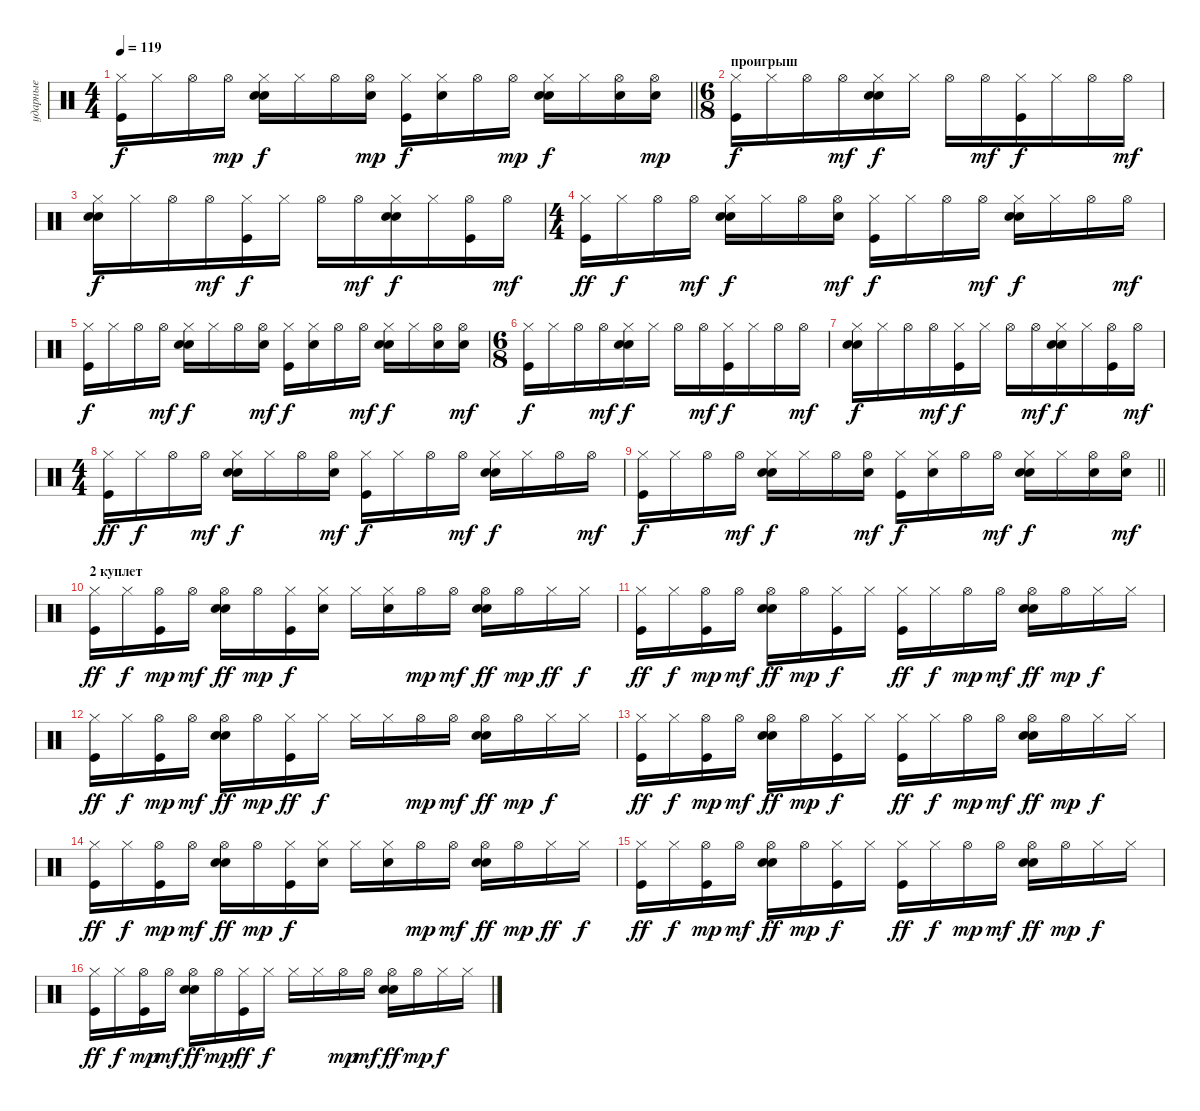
\track ("ударные" "ударные") {instrument percussion}
\staff {score}
\articulation defaults
\ts (4 4)
\tempo 119
\clef neutral
\barLineRight lightlight
\ks c
("Hi-Hat (closed)" "Kick (hit)").16{dy f} "Hi-Hat (closed)".16 "Hi-Hat (open)".16 "Hi-Hat (open)".16{dy mp} ("Hi-Hat (closed)" "Electric Snare (hit)" "Hand Clap (hit)").16{dy f} "Hi-Hat (closed)".16 "Hi-Hat (open)".16 ("Electric Snare (hit)" "Hi-Hat (open)").16{dy mp} ("Kick (hit)" "Hi-Hat (closed)").16{dy f} ("Electric Snare (hit)" "Hi-Hat (closed)").16 "Hi-Hat (open)".16 "Hi-Hat (open)".16{dy mp} ("Hi-Hat (closed)" "Electric Snare (hit)" "Hand Clap (hit)").16{dy f} "Hi-Hat (closed)".16 ("Electric Snare (hit)" "Hi-Hat (open)").16 ("Electric Snare (hit)" "Hi-Hat (open)").16{dy mp} |
\ts (6 8)
\section ("" "проигрыш")
("Hi-Hat (closed)" "Kick (hit)").16{dy f} "Hi-Hat (closed)".16 "Hi-Hat (open)".16 "Hi-Hat (open)".16{dy mf} ("Electric Snare (hit)" "Hi-Hat (closed)" "Hand Clap (hit)").16{dy f} "Hi-Hat (closed)".16 "Hi-Hat (open)".16 "Hi-Hat (open)".16{dy mf} ("Kick (hit)" "Hi-Hat (closed)").16{dy f} "Hi-Hat (closed)".16 "Hi-Hat (open)".16 "Hi-Hat (open)".16{dy mf} |
("Electric Snare (hit)" "Hi-Hat (closed)" "Hand Clap (hit)").16{dy f} "Hi-Hat (closed)".16 "Hi-Hat (open)".16 "Hi-Hat (open)".16{dy mf} ("Kick (hit)" "Hi-Hat (closed)").16{dy f} "Hi-Hat (closed)".16 "Hi-Hat (open)".16 "Hi-Hat (open)".16{dy mf} ("Electric Snare (hit)" "Hi-Hat (closed)" "Hand Clap (hit)").16{dy f} "Hi-Hat (closed)".16 ("Kick (hit)" "Hi-Hat (open)").16 "Hi-Hat (open)".16{dy mf} |
\ts (4 4)
("Kick (hit)" "Hi-Hat (closed)").16{dy ff} "Hi-Hat (closed)".16{dy f} "Hi-Hat (open)".16 "Hi-Hat (open)".16{dy mf} ("Electric Snare (hit)" "Hi-Hat (closed)" "Hand Clap (hit)").16{dy f} "Hi-Hat (closed)".16 "Hi-Hat (open)".16 ("Hi-Hat (open)" "Electric Snare (hit)").16{dy mf} ("Hi-Hat (closed)" "Kick (hit)").16{dy f} "Hi-Hat (closed)".16 "Hi-Hat (open)".16 "Hi-Hat (open)".16{dy mf} ("Electric Snare (hit)" "Hi-Hat (closed)" "Hand Clap (hit)").16{dy f} "Hi-Hat (closed)".16 "Hi-Hat (open)".16 "Hi-Hat (open)".16{dy mf} |
("Kick (hit)" "Hi-Hat (closed)").16{dy f} "Hi-Hat (closed)".16 "Hi-Hat (open)".16 "Hi-Hat (open)".16{dy mf} ("Electric Snare (hit)" "Hi-Hat (closed)" "Hand Clap (hit)").16{dy f} "Hi-Hat (closed)".16 "Hi-Hat (open)".16 ("Hi-Hat (open)" "Electric Snare (hit)").16{dy mf} ("Hi-Hat (closed)" "Kick (hit)").16{dy f} ("Electric Snare (hit)" "Hi-Hat (closed)").16 "Hi-Hat (open)".16 "Hi-Hat (open)".16{dy mf} ("Electric Snare (hit)" "Hi-Hat (closed)" "Hand Clap (hit)").16{dy f} "Hi-Hat (closed)".16 ("Electric Snare (hit)" "Hi-Hat (open)").16 ("Electric Snare (hit)" "Hi-Hat (open)").16{dy mf} |
\ts (6 8)
("Hi-Hat (closed)" "Kick (hit)").16{dy f} "Hi-Hat (closed)".16 "Hi-Hat (open)".16 "Hi-Hat (open)".16{dy mf} ("Electric Snare (hit)" "Hi-Hat (closed)" "Hand Clap (hit)").16{dy f} "Hi-Hat (closed)".16 "Hi-Hat (open)".16 "Hi-Hat (open)".16{dy mf} ("Kick (hit)" "Hi-Hat (closed)").16{dy f} "Hi-Hat (closed)".16 "Hi-Hat (open)".16 "Hi-Hat (open)".16{dy mf} |
("Electric Snare (hit)" "Hi-Hat (closed)" "Hand Clap (hit)").16{dy f} "Hi-Hat (closed)".16 "Hi-Hat (open)".16 "Hi-Hat (open)".16{dy mf} ("Kick (hit)" "Hi-Hat (closed)").16{dy f} "Hi-Hat (closed)".16 "Hi-Hat (open)".16 "Hi-Hat (open)".16{dy mf} ("Electric Snare (hit)" "Hi-Hat (closed)" "Hand Clap (hit)").16{dy f} "Hi-Hat (closed)".16 ("Kick (hit)" "Hi-Hat (open)").16 "Hi-Hat (open)".16{dy mf} |
\ts (4 4)
("Kick (hit)" "Hi-Hat (closed)").16{dy ff} "Hi-Hat (closed)".16{dy f} "Hi-Hat (open)".16 "Hi-Hat (open)".16{dy mf} ("Electric Snare (hit)" "Hi-Hat (closed)" "Hand Clap (hit)").16{dy f} "Hi-Hat (closed)".16 "Hi-Hat (open)".16 ("Hi-Hat (open)" "Electric Snare (hit)").16{dy mf} ("Hi-Hat (closed)" "Kick (hit)").16{dy f} "Hi-Hat (closed)".16 "Hi-Hat (open)".16 "Hi-Hat (open)".16{dy mf} ("Electric Snare (hit)" "Hi-Hat (closed)" "Hand Clap (hit)").16{dy f} "Hi-Hat (closed)".16 "Hi-Hat (open)".16 "Hi-Hat (open)".16{dy mf} |
\barLineRight lightlight
("Kick (hit)" "Hi-Hat (closed)").16{dy f} "Hi-Hat (closed)".16 "Hi-Hat (open)".16 "Hi-Hat (open)".16{dy mf} ("Electric Snare (hit)" "Hi-Hat (closed)" "Hand Clap (hit)").16{dy f} "Hi-Hat (closed)".16 "Hi-Hat (open)".16 ("Hi-Hat (open)" "Electric Snare (hit)").16{dy mf} ("Hi-Hat (closed)" "Kick (hit)").16{dy f} ("Electric Snare (hit)" "Hi-Hat (closed)").16 "Hi-Hat (open)".16 "Hi-Hat (open)".16{dy mf} ("Electric Snare (hit)" "Hi-Hat (closed)" "Hand Clap (hit)").16{dy f} "Hi-Hat (closed)".16 ("Electric Snare (hit)" "Hi-Hat (open)").16 ("Electric Snare (hit)" "Hi-Hat (open)").16{dy mf} |
\section ("" "2 куплет")
("Kick (hit)" "Hi-Hat (closed)").16{dy ff} "Hi-Hat (closed)".16{dy f} ("Kick (hit)" "Hi-Hat (open)").16{dy mp} "Hi-Hat (open)".16{dy mf} ("Electric Snare (hit)" "Hi-Hat (open)" "Hand Clap (hit)").16{dy ff} "Hi-Hat (open)".16{dy mp} ("Kick (hit)" "Hi-Hat (closed)").16{dy f} ("Electric Snare (hit)" "Hi-Hat (closed)").16 "Hi-Hat (closed)".16 ("Electric Snare (hit)" "Hi-Hat (closed)").16 "Hi-Hat (open)".16{dy mp} "Hi-Hat (open)".16{dy mf} ("Hi-Hat (open)" "Electric Snare (hit)" "Hand Clap (hit)").16{dy ff} "Hi-Hat (open)".16{dy mp} "Hi-Hat (closed)".16{dy ff} "Hi-Hat (closed)".16{dy f} |
("Kick (hit)" "Hi-Hat (closed)").16{dy ff} "Hi-Hat (closed)".16{dy f} ("Kick (hit)" "Hi-Hat (open)").16{dy mp} "Hi-Hat (open)".16{dy mf} ("Electric Snare (hit)" "Hi-Hat (open)" "Hand Clap (hit)").16{dy ff} "Hi-Hat (open)".16{dy mp} ("Kick (hit)" "Hi-Hat (closed)").16{dy f} "Hi-Hat (closed)".16 ("Kick (hit)" "Hi-Hat (closed)").16{dy ff} "Hi-Hat (closed)".16{dy f} "Hi-Hat (open)".16{dy mp} "Hi-Hat (open)".16{dy mf} ("Electric Snare (hit)" "Hi-Hat (open)" "Hand Clap (hit)").16{dy ff} "Hi-Hat (open)".16{dy mp} "Hi-Hat (closed)".16{dy f} "Hi-Hat (closed)".16 |
("Kick (hit)" "Hi-Hat (closed)").16{dy ff} "Hi-Hat (closed)".16{dy f} ("Kick (hit)" "Hi-Hat (open)").16{dy mp} "Hi-Hat (open)".16{dy mf} ("Electric Snare (hit)" "Hi-Hat (open)" "Hand Clap (hit)").16{dy ff} "Hi-Hat (open)".16{dy mp} ("Kick (hit)" "Hi-Hat (closed)").16{dy ff} "Hi-Hat (closed)".16{dy f} "Hi-Hat (closed)".16 "Hi-Hat (closed)".16 "Hi-Hat (open)".16{dy mp} "Hi-Hat (open)".16{dy mf} ("Electric Snare (hit)" "Hi-Hat (open)" "Hand Clap (hit)").16{dy ff} "Hi-Hat (open)".16{dy mp} "Hi-Hat (closed)".16{dy f} "Hi-Hat (closed)".16 |
("Kick (hit)" "Hi-Hat (closed)").16{dy ff} "Hi-Hat (closed)".16{dy f} ("Kick (hit)" "Hi-Hat (open)").16{dy mp} "Hi-Hat (open)".16{dy mf} ("Electric Snare (hit)" "Hi-Hat (open)" "Hand Clap (hit)").16{dy ff} "Hi-Hat (open)".16{dy mp} ("Kick (hit)" "Hi-Hat (closed)").16{dy f} "Hi-Hat (closed)".16 ("Kick (hit)" "Hi-Hat (closed)").16{dy ff} "Hi-Hat (closed)".16{dy f} "Hi-Hat (open)".16{dy mp} "Hi-Hat (open)".16{dy mf} ("Electric Snare (hit)" "Hi-Hat (open)" "Hand Clap (hit)").16{dy ff} "Hi-Hat (open)".16{dy mp} "Hi-Hat (closed)".16{dy f} "Hi-Hat (closed)".16 |
("Kick (hit)" "Hi-Hat (closed)").16{dy ff} "Hi-Hat (closed)".16{dy f} ("Kick (hit)" "Hi-Hat (open)").16{dy mp} "Hi-Hat (open)".16{dy mf} ("Electric Snare (hit)" "Hi-Hat (open)" "Hand Clap (hit)").16{dy ff} "Hi-Hat (open)".16{dy mp} ("Kick (hit)" "Hi-Hat (closed)").16{dy f} ("Electric Snare (hit)" "Hi-Hat (closed)").16 "Hi-Hat (closed)".16 ("Electric Snare (hit)" "Hi-Hat (closed)").16 "Hi-Hat (open)".16{dy mp} "Hi-Hat (open)".16{dy mf} ("Hi-Hat (open)" "Electric Snare (hit)" "Hand Clap (hit)").16{dy ff} "Hi-Hat (open)".16{dy mp} "Hi-Hat (closed)".16{dy ff} "Hi-Hat (closed)".16{dy f} |
("Kick (hit)" "Hi-Hat (closed)").16{dy ff} "Hi-Hat (closed)".16{dy f} ("Kick (hit)" "Hi-Hat (open)").16{dy mp} "Hi-Hat (open)".16{dy mf} ("Electric Snare (hit)" "Hi-Hat (open)" "Hand Clap (hit)").16{dy ff} "Hi-Hat (open)".16{dy mp} ("Kick (hit)" "Hi-Hat (closed)").16{dy f} "Hi-Hat (closed)".16 ("Kick (hit)" "Hi-Hat (closed)").16{dy ff} "Hi-Hat (closed)".16{dy f} "Hi-Hat (open)".16{dy mp} "Hi-Hat (open)".16{dy mf} ("Electric Snare (hit)" "Hi-Hat (open)" "Hand Clap (hit)").16{dy ff} "Hi-Hat (open)".16{dy mp} "Hi-Hat (closed)".16{dy f} "Hi-Hat (closed)".16 |
("Kick (hit)" "Hi-Hat (closed)").16{dy ff} "Hi-Hat (closed)".16{dy f} ("Kick (hit)" "Hi-Hat (open)").16{dy mp} "Hi-Hat (open)".16{dy mf} ("Electric Snare (hit)" "Hi-Hat (open)" "Hand Clap (hit)").16{dy ff} "Hi-Hat (open)".16{dy mp} ("Kick (hit)" "Hi-Hat (closed)").16{dy ff} "Hi-Hat (closed)".16{dy f} "Hi-Hat (closed)".16 "Hi-Hat (closed)".16 "Hi-Hat (open)".16{dy mp} "Hi-Hat (open)".16{dy mf} ("Electric Snare (hit)" "Hi-Hat (open)" "Hand Clap (hit)").16{dy ff} "Hi-Hat (open)".16{dy mp} "Hi-Hat (closed)".16{dy f} "Hi-Hat (closed)".16
